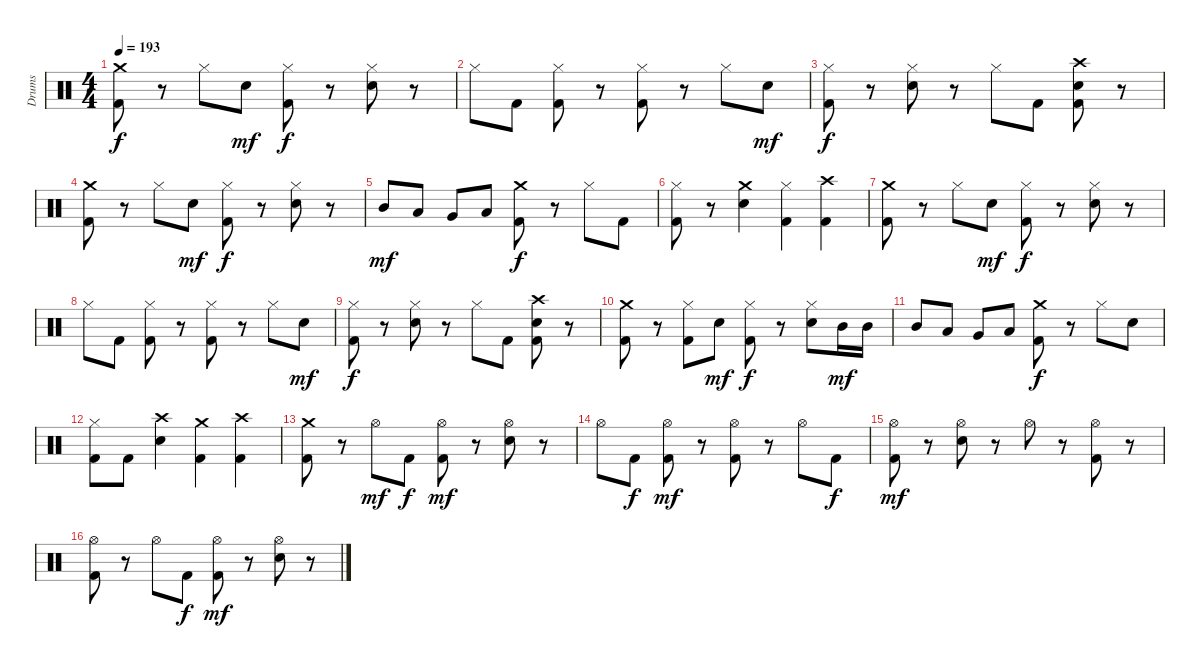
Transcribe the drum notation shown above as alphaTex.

\track ("Drums" "Drums") {instrument percussion}
\staff {score}
\articulation defaults
\ts (4 4)
\tempo 193
\clef neutral
\ks c
("Crash medium (hit)" "Kick (hit) 2").8{dy f} r.8 "Hi-Hat (closed)".8 "Snare (hit) 2".8{dy mf} ("Hi-Hat (closed)" "Kick (hit) 2").8{dy f} r.8 ("Hi-Hat (closed)" "Snare (hit) 2").8 r.8 |
"Hi-Hat (closed)".8 "Kick (hit) 2".8 ("Hi-Hat (closed)" "Kick (hit) 2").8 r.8 ("Hi-Hat (closed)" "Kick (hit) 2").8 r.8 "Hi-Hat (closed)".8 "Snare (hit) 2".8{dy mf} |
("Hi-Hat (closed)" "Kick (hit) 2").8{dy f} r.8 ("Hi-Hat (closed)" "Snare (hit) 2").8 r.8 "Hi-Hat (closed)".8 "Kick (hit) 2".8 ("Crash high (hit)" "Snare (hit) 2" "Kick (hit) 2").8 r.8 |
("Crash medium (hit)" "Kick (hit) 2").8 r.8 "Hi-Hat (closed)".8 "Snare (hit) 2".8{dy mf} ("Hi-Hat (closed)" "Kick (hit) 2").8{dy f} r.8 ("Hi-Hat (closed)" "Snare (hit) 2").8 r.8 |
"Mid Tom (hit)".8{dy mf} "Low Tom (hit)".8 "Very Low Tom (hit)".8 "Low Floor Tom (hit)".8 ("Crash medium (hit)" "Kick (hit) 2").8{dy f} r.8 "Hi-Hat (closed)".8 "Kick (hit) 2".8 |
("Hi-Hat (closed)" "Kick (hit) 2").8 r.8 ("Crash medium (hit)" "Snare (hit) 2").4 ("Hi-Hat (closed)" "Kick (hit) 2").4 ("Crash high (hit)" "Kick (hit) 2").4 |
("Crash medium (hit)" "Kick (hit) 2").8 r.8 "Hi-Hat (closed)".8 "Snare (hit) 2".8{dy mf} ("Hi-Hat (closed)" "Kick (hit) 2").8{dy f} r.8 ("Hi-Hat (closed)" "Snare (hit) 2").8 r.8 |
"Hi-Hat (closed)".8 "Kick (hit) 2".8 ("Hi-Hat (closed)" "Kick (hit) 2").8 r.8 ("Hi-Hat (closed)" "Kick (hit) 2").8 r.8 "Hi-Hat (closed)".8 "Snare (hit) 2".8{dy mf} |
("Hi-Hat (closed)" "Kick (hit) 2").8{dy f} r.8 ("Hi-Hat (closed)" "Snare (hit) 2").8 r.8 "Hi-Hat (closed)".8 "Kick (hit) 2".8 ("Crash high (hit)" "Snare (hit) 2" "Kick (hit) 2").8 r.8 |
("Crash medium (hit)" "Kick (hit) 2").8 r.8 ("Hi-Hat (closed)" "Kick (hit) 2").8 "Snare (hit) 2".8{dy mf} ("Hi-Hat (closed)" "Kick (hit) 2").8{dy f} r.8 ("Hi-Hat (closed)" "Snare (hit) 2").8 "Mid Tom (hit)".16{dy mf} "Mid Tom (hit)".16 |
"Mid Tom (hit)".8 "Low Tom (hit)".8 "Very Low Tom (hit)".8 "Low Floor Tom (hit)".8 ("Crash medium (hit)" "Kick (hit) 2").8{dy f} r.8 "Hi-Hat (closed)".8 "Snare (hit) 2".8 |
("Hi-Hat (closed)" "Kick (hit) 2").8 "Kick (hit) 2".8 ("Crash high (hit)" "Snare (hit) 2").4 ("Crash medium (hit)" "Kick (hit) 2").4 ("Crash high (hit)" "Kick (hit) 2").4 |
("Crash medium (hit)" "Kick (hit) 2").8 r.8 "Hi-Hat (open)".8{dy mf} "Kick (hit) 2".8{dy f} ("Hi-Hat (open)" "Kick (hit) 2").8{dy mf} r.8 ("Hi-Hat (open)" "Snare (hit) 2").8 r.8 |
"Hi-Hat (open)".8 "Kick (hit) 2".8{dy f} ("Hi-Hat (open)" "Kick (hit) 2").8{dy mf} r.8 ("Hi-Hat (open)" "Kick (hit) 2").8 r.8 "Hi-Hat (open)".8 "Kick (hit) 2".8{dy f} |
("Hi-Hat (open)" "Kick (hit) 2").8{dy mf} r.8 ("Hi-Hat (open)" "Snare (hit) 2").8 r.8 "Hi-Hat (open)".8 r.8 ("Hi-Hat (open)" "Kick (hit) 2").8 r.8 |
("Hi-Hat (open)" "Kick (hit) 2").8 r.8 "Hi-Hat (open)".8 "Kick (hit) 2".8{dy f} ("Hi-Hat (open)" "Kick (hit) 2").8{dy mf} r.8 ("Hi-Hat (open)" "Snare (hit) 2").8 r.8
